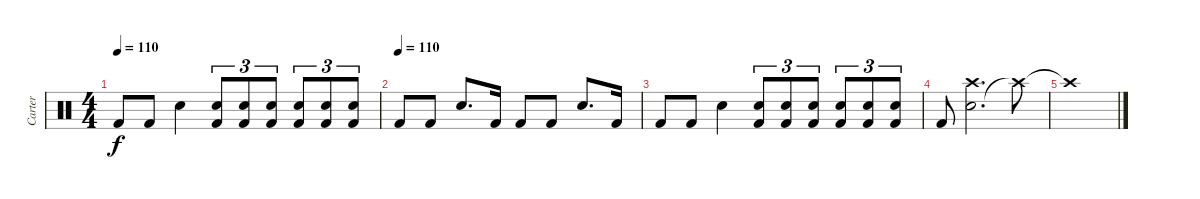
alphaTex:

\track ("Carter" "Carter") {instrument percussion}
\staff {score}
\articulation defaults
\ts (4 4)
\tempo 110
\clef neutral
\ks c "Kick (hit) 2".8{dy f} "Kick (hit) 2".8 "Electric Snare (hit)".4
("Electric Snare (hit)" "Kick (hit) 2").8{tu (3 2)} ("Electric Snare (hit)" "Kick (hit) 2").8{tu (3 2)} ("Electric Snare (hit)" "Kick (hit) 2").8{tu (3 2)} ("Electric Snare (hit)" "Kick (hit) 2").8{tu (3 2)} ("Electric Snare (hit)" "Kick (hit) 2").8{tu (3 2)} ("Electric Snare (hit)" "Kick (hit) 2").8{tu (3 2)} |
\tempo (110)
"Kick (hit) 2".8 "Kick (hit) 2".8 "Electric Snare (hit)".8{d} "Kick (hit) 2".16 "Kick (hit) 2".8 "Kick (hit) 2".8 "Electric Snare (hit)".8{d} "Kick (hit) 2".16 |
"Kick (hit) 2".8 "Kick (hit) 2".8 "Electric Snare (hit)".4 ("Electric Snare (hit)" "Kick (hit) 2").8{tu (3 2)} ("Electric Snare (hit)" "Kick (hit) 2").8{tu (3 2)} ("Electric Snare (hit)" "Kick (hit) 2").8{tu (3 2)} ("Electric Snare (hit)" "Kick (hit) 2").8{tu (3 2)} ("Electric Snare (hit)" "Kick (hit) 2").8{tu (3 2)} ("Electric Snare (hit)" "Kick (hit) 2").8{tu (3 2)} |
"Kick (hit) 2".8 ("Electric Snare (hit)" "Crash high (hit)").2{d} "Crash high (hit)"{t}.8 |
"Crash high (hit)"{t}.1
